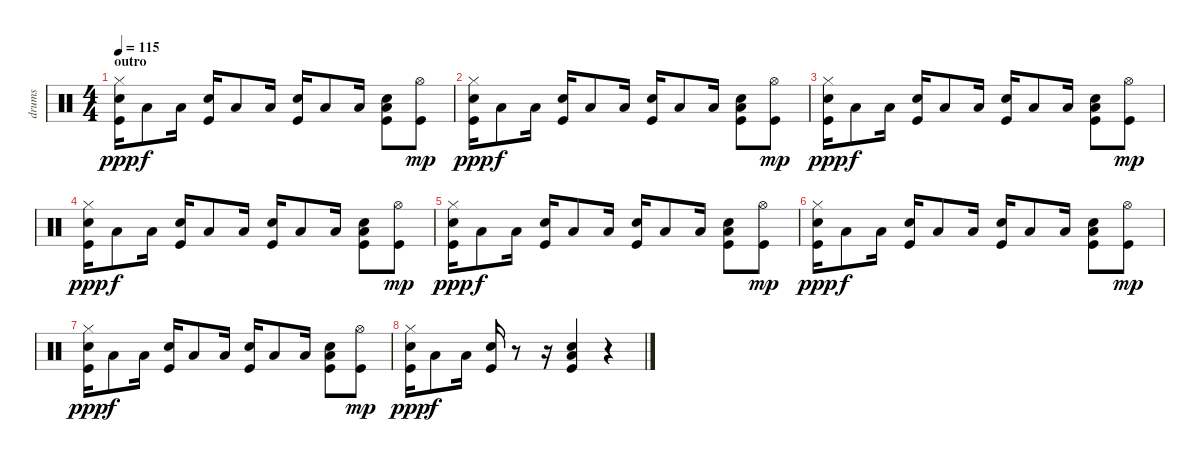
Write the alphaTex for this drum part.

\track ("drums" "drums") {instrument percussion}
\staff {score}
\articulation defaults
\ts (4 4)
\section ("" "outro")
\tempo 115
\clef neutral
\ks c
("Kick (hit)" "Electric Snare (hit)" "Hi-Hat (closed)").16{dy ppp} "Low Floor Tom (hit)".8{dy f} "Low Floor Tom (hit)".16 ("Kick (hit)" "Electric Snare (hit)").16 "Low Floor Tom (hit)".8 "Low Floor Tom (hit)".16 ("Kick (hit)" "Electric Snare (hit)").16 "Low Floor Tom (hit)".8 "Low Floor Tom (hit)".16 ("Kick (hit)" "Low Floor Tom (hit)" "Electric Snare (hit)").8 ("Kick (hit)" "Hi-Hat (open)").8{dy mp} |
("Kick (hit)" "Electric Snare (hit)" "Hi-Hat (closed)").16{dy ppp} "Low Floor Tom (hit)".8{dy f} "Low Floor Tom (hit)".16 ("Kick (hit)" "Electric Snare (hit)").16 "Low Floor Tom (hit)".8 "Low Floor Tom (hit)".16 ("Kick (hit)" "Electric Snare (hit)").16 "Low Floor Tom (hit)".8 "Low Floor Tom (hit)".16 ("Kick (hit)" "Low Floor Tom (hit)" "Electric Snare (hit)").8 ("Kick (hit)" "Hi-Hat (open)").8{dy mp} |
("Kick (hit)" "Electric Snare (hit)" "Hi-Hat (closed)").16{dy ppp} "Low Floor Tom (hit)".8{dy f} "Low Floor Tom (hit)".16 ("Kick (hit)" "Electric Snare (hit)").16 "Low Floor Tom (hit)".8 "Low Floor Tom (hit)".16 ("Kick (hit)" "Electric Snare (hit)").16 "Low Floor Tom (hit)".8 "Low Floor Tom (hit)".16 ("Kick (hit)" "Low Floor Tom (hit)" "Electric Snare (hit)").8 ("Kick (hit)" "Hi-Hat (open)").8{dy mp} |
("Kick (hit)" "Electric Snare (hit)" "Hi-Hat (closed)").16{dy ppp} "Low Floor Tom (hit)".8{dy f} "Low Floor Tom (hit)".16 ("Kick (hit)" "Electric Snare (hit)").16 "Low Floor Tom (hit)".8 "Low Floor Tom (hit)".16 ("Kick (hit)" "Electric Snare (hit)").16 "Low Floor Tom (hit)".8 "Low Floor Tom (hit)".16 ("Kick (hit)" "Low Floor Tom (hit)" "Electric Snare (hit)").8 ("Kick (hit)" "Hi-Hat (open)").8{dy mp} |
("Kick (hit)" "Electric Snare (hit)" "Hi-Hat (closed)").16{dy ppp} "Low Floor Tom (hit)".8{dy f} "Low Floor Tom (hit)".16 ("Kick (hit)" "Electric Snare (hit)").16 "Low Floor Tom (hit)".8 "Low Floor Tom (hit)".16 ("Kick (hit)" "Electric Snare (hit)").16 "Low Floor Tom (hit)".8 "Low Floor Tom (hit)".16 ("Kick (hit)" "Low Floor Tom (hit)" "Electric Snare (hit)").8 ("Kick (hit)" "Hi-Hat (open)").8{dy mp} |
("Kick (hit)" "Electric Snare (hit)" "Hi-Hat (closed)").16{dy ppp} "Low Floor Tom (hit)".8{dy f} "Low Floor Tom (hit)".16 ("Kick (hit)" "Electric Snare (hit)").16 "Low Floor Tom (hit)".8 "Low Floor Tom (hit)".16 ("Kick (hit)" "Electric Snare (hit)").16 "Low Floor Tom (hit)".8 "Low Floor Tom (hit)".16 ("Kick (hit)" "Low Floor Tom (hit)" "Electric Snare (hit)").8 ("Kick (hit)" "Hi-Hat (open)").8{dy mp} |
("Kick (hit)" "Electric Snare (hit)" "Hi-Hat (closed)").16{dy ppp} "Low Floor Tom (hit)".8{dy f} "Low Floor Tom (hit)".16 ("Kick (hit)" "Electric Snare (hit)").16 "Low Floor Tom (hit)".8 "Low Floor Tom (hit)".16 ("Kick (hit)" "Electric Snare (hit)").16 "Low Floor Tom (hit)".8 "Low Floor Tom (hit)".16 ("Kick (hit)" "Low Floor Tom (hit)" "Electric Snare (hit)").8 ("Kick (hit)" "Hi-Hat (open)").8{dy mp} |
("Kick (hit)" "Electric Snare (hit)" "Hi-Hat (closed)").16{dy ppp} "Low Floor Tom (hit)".8{dy f} "Low Floor Tom (hit)".16 ("Kick (hit)" "Electric Snare (hit)").16 r.8 r.16 ("Kick (hit)" "Electric Snare (hit)" "Low Floor Tom (hit)").4 r.4
